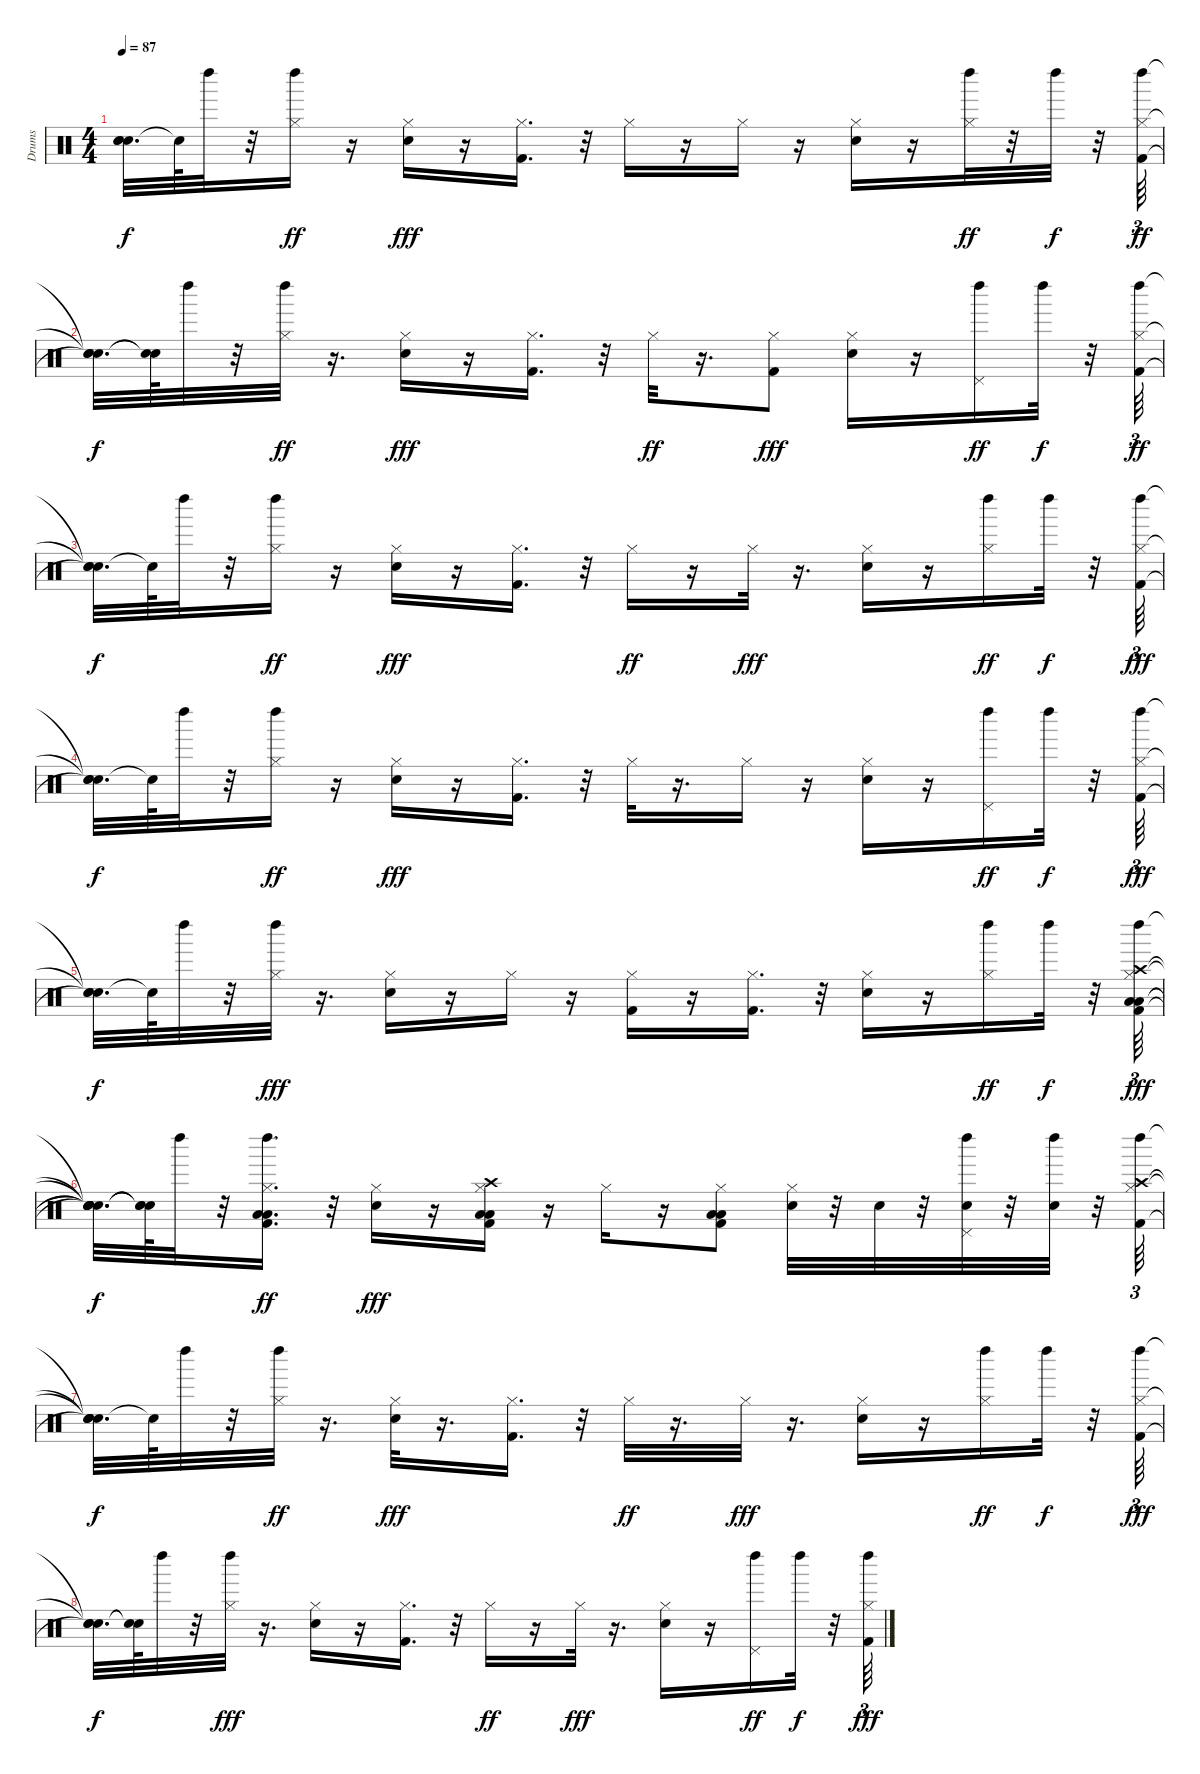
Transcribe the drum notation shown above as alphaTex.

\track ("Drums   " "Drums   ") {instrument percussion}
\staff {score}
\articulation defaults
\ts (4 4)
\tempo 87
\clef neutral
\ks c
("Snare (hit)"{t} "Snare (hit)"{t} "Snare (hit)"{t}).32{d dy f} "Snare (hit)"{t}.64 "Left Maraca (hit)".32 r.32 ("Hi-Hat (closed)" "Left Maraca (hit)").16{dy ff} r.16 ("Hi-Hat (closed)" "Snare (hit) 2").16{dy fff} r.16 ("Kick (hit) 2" "Hi-Hat (closed)").16{d} r.32 "Hi-Hat (closed)".16 r.16 "Hi-Hat (closed)".16 r.16 ("Hi-Hat (closed)" "Snare (hit) 2").16 r.16 ("Hi-Hat (closed)" "Left Maraca (hit)").32{dy ff} r.32 "Left Maraca (hit)".32{dy f} r.32 ("Kick (hit) 2" "Hi-Hat (closed)" "Left Maraca (hit)").64{tu (3 2) dy ff} |
("Snare (hit)"{t} "Snare (hit)"{t} "Snare (hit)"{t}).32{d dy f} ("Snare (hit)"{t} "Snare (hit)"{t}).64 "Left Maraca (hit)".32 r.32 ("Hi-Hat (closed)" "Left Maraca (hit)").32{dy ff} r.16{d} ("Hi-Hat (closed)" "Snare (hit) 2").16{dy fff} r.16 ("Kick (hit) 2" "Hi-Hat (closed)").16{d} r.32 "Hi-Hat (closed)".32{dy ff} r.16{d} ("Kick (hit) 2" "Hi-Hat (closed)").8{dy fff} ("Hi-Hat (closed)" "Snare (hit) 2").16 r.16 ("Pedal Hi-Hat (hit)" "Left Maraca (hit)").16{dy ff} "Left Maraca (hit)".32{dy f} r.32 ("Kick (hit) 2" "Hi-Hat (closed)" "Left Maraca (hit)").64{tu (3 2) dy ff} |
("Snare (hit)"{t} "Snare (hit)"{t} "Snare (hit)"{t}).32{d dy f} "Snare (hit)"{t}.64 "Left Maraca (hit)".32 r.32 ("Hi-Hat (closed)" "Left Maraca (hit)").16{dy ff} r.16 ("Hi-Hat (closed)" "Snare (hit) 2").16{dy fff} r.16 ("Kick (hit) 2" "Hi-Hat (closed)").16{d} r.32 "Hi-Hat (closed)".16{dy ff} r.16 "Hi-Hat (closed)".32{dy fff} r.16{d} ("Hi-Hat (closed)" "Snare (hit) 2").16 r.16 ("Hi-Hat (closed)" "Left Maraca (hit)").16{dy ff} "Left Maraca (hit)".32{dy f} r.32 ("Kick (hit) 2" "Hi-Hat (closed)" "Left Maraca (hit)").64{tu (3 2) dy fff} |
("Snare (hit)"{t} "Snare (hit)"{t} "Snare (hit)"{t}).32{d dy f} "Snare (hit)"{t}.64 "Left Maraca (hit)".32 r.32 ("Hi-Hat (closed)" "Left Maraca (hit)").16{dy ff} r.16 ("Hi-Hat (closed)" "Snare (hit) 2").16{dy fff} r.16 ("Kick (hit) 2" "Hi-Hat (closed)").16{d} r.32 "Hi-Hat (closed)".32 r.16{d} "Hi-Hat (closed)".16 r.16 ("Hi-Hat (closed)" "Snare (hit) 2").16 r.16 ("Pedal Hi-Hat (hit)" "Left Maraca (hit)").16{dy ff} "Left Maraca (hit)".32{dy f} r.32 ("Kick (hit) 2" "Hi-Hat (closed)" "Left Maraca (hit)").64{tu (3 2) dy fff} |
("Snare (hit)"{t} "Snare (hit)"{t} "Snare (hit)"{t}).32{d dy f} "Snare (hit)"{t}.64 "Left Maraca (hit)".32 r.32 ("Hi-Hat (closed)" "Left Maraca (hit)").32{dy fff} r.16{d} ("Hi-Hat (closed)" "Snare (hit) 2").16 r.16 "Hi-Hat (closed)".16 r.16 ("Kick (hit) 2" "Hi-Hat (closed)").16 r.16 ("Kick (hit) 2" "Hi-Hat (closed)").16{d} r.32 ("Hi-Hat (closed)" "Snare (hit) 2").16 r.16 ("Hi-Hat (closed)" "Left Maraca (hit)").16{dy ff} "Left Maraca (hit)".32{dy f} r.32 ("Kick (hit) 2" "Hi-Hat (closed)" "Low Floor Tom (hit)" "Low Tom (hit)" "Crash high (hit)" "Left Maraca (hit)").64{tu (3 2) dy fff} |
("Snare (hit)"{t} "Snare (hit)"{t} "Snare (hit)"{t} "Snare (hit)"{t} "Snare (hit)"{t} "Snare (hit)"{t}).32{d dy f} ("Snare (hit)"{t} "Snare (hit)"{t} "Snare (hit)"{t}).64 "Left Maraca (hit)".32 r.32 ("Kick (hit) 2" "Hi-Hat (closed)" "Low Floor Tom (hit)" "Low Tom (hit)" "Left Maraca (hit)").16{d dy ff} r.32 ("Hi-Hat (closed)" "Snare (hit) 2").16{dy fff} r.16 ("Kick (hit) 2" "Low Floor Tom (hit)" "Hi-Hat (closed)" "Low Tom (hit)" "Crash high (hit)").16 r.16 "Hi-Hat (closed)".16 r.16 ("Kick (hit) 2" "Hi-Hat (closed)" "Low Floor Tom (hit)" "Low Tom (hit)").8 ("Hi-Hat (closed)" "Snare (hit) 2").32 r.32 "Snare (hit) 2".32 r.32 ("Pedal Hi-Hat (hit)" "Snare (hit) 2" "Left Maraca (hit)").32 r.32 ("Left Maraca (hit)" "Snare (hit) 2").32 r.32 ("Kick (hit) 2" "Hi-Hat (closed)" "Crash high (hit)" "Left Maraca (hit)").64{tu (3 2)} |
("Snare (hit)"{t} "Snare (hit)"{t} "Snare (hit)"{t} "Snare (hit)"{t}).32{d dy f} "Snare (hit)"{t}.64 "Left Maraca (hit)".32 r.32 ("Hi-Hat (closed)" "Left Maraca (hit)").32{dy ff} r.16{d} ("Hi-Hat (closed)" "Snare (hit) 2").32{dy fff} r.16{d} ("Kick (hit) 2" "Hi-Hat (closed)").16{d} r.32 "Hi-Hat (closed)".32{dy ff} r.16{d} "Hi-Hat (closed)".32{dy fff} r.16{d} ("Hi-Hat (closed)" "Snare (hit) 2").16 r.16 ("Hi-Hat (closed)" "Left Maraca (hit)").16{dy ff} "Left Maraca (hit)".32{dy f} r.32 ("Kick (hit) 2" "Hi-Hat (closed)" "Left Maraca (hit)").64{tu (3 2) dy fff} |
("Snare (hit)"{t} "Snare (hit)"{t} "Snare (hit)"{t}).32{d dy f} ("Snare (hit)"{t} "Snare (hit)"{t}).64 "Left Maraca (hit)".32 r.32 ("Hi-Hat (closed)" "Left Maraca (hit)").32{dy fff} r.16{d} ("Hi-Hat (closed)" "Snare (hit) 2").16 r.16 ("Kick (hit) 2" "Hi-Hat (closed)").16{d} r.32 "Hi-Hat (closed)".16{dy ff} r.16 "Hi-Hat (closed)".32{dy fff} r.16{d} ("Hi-Hat (closed)" "Snare (hit) 2").16 r.16 ("Pedal Hi-Hat (hit)" "Left Maraca (hit)").16{dy ff} "Left Maraca (hit)".32{dy f} r.32 ("Kick (hit) 2" "Hi-Hat (closed)" "Left Maraca (hit)").64{tu (3 2) dy fff}
